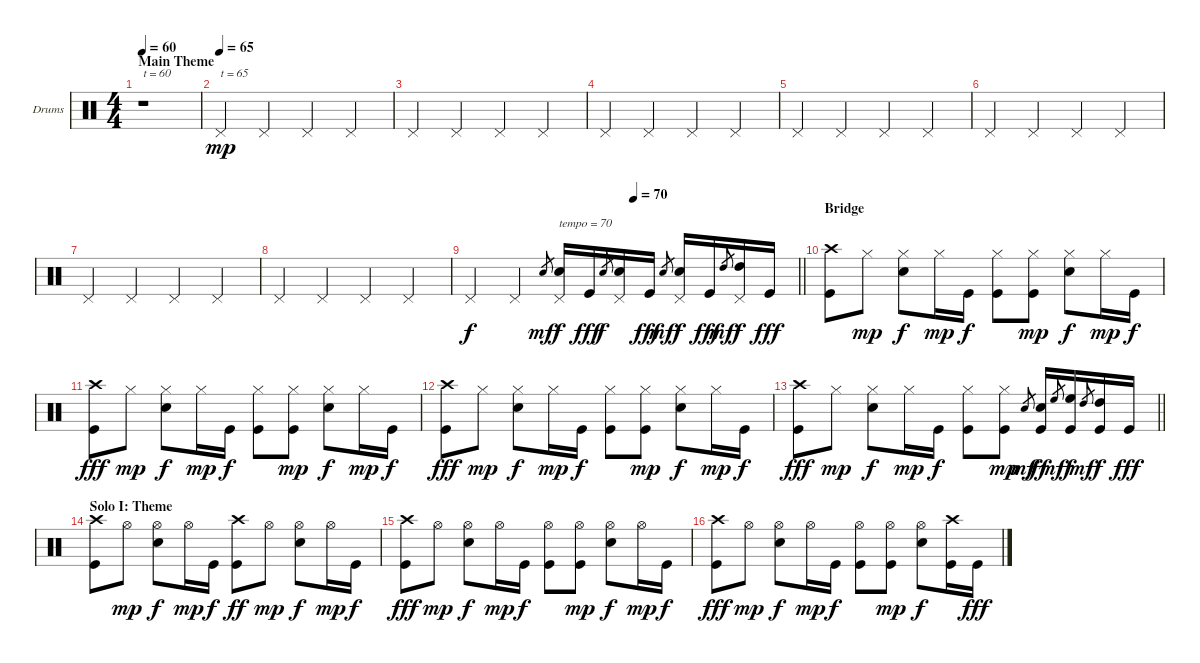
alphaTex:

\bracketExtendMode groupsimilarinstruments
\firstSystemTrackNameOrientation horizontal
\otherSystemsTrackNameOrientation horizontal
\track ("5" "Drums") {instrument percussion}
\staff {score}
\articulation defaults
\ts (4 4)
\beaming (8 2 2 2 2)
\section ("" "Main Theme")
\tempo 60
\clef neutral
\ks c
r.1{txt "t = 60" dy mp} |
\tempo (65)
"Pedal Hi-Hat (hit)".4{txt "t = 65"} "Pedal Hi-Hat (hit)".4 "Pedal Hi-Hat (hit)".4 "Pedal Hi-Hat (hit)".4 |
"Pedal Hi-Hat (hit)".4 "Pedal Hi-Hat (hit)".4 "Pedal Hi-Hat (hit)".4 "Pedal Hi-Hat (hit)".4 |
"Pedal Hi-Hat (hit)".4 "Pedal Hi-Hat (hit)".4 "Pedal Hi-Hat (hit)".4 "Pedal Hi-Hat (hit)".4 |
"Pedal Hi-Hat (hit)".4 "Pedal Hi-Hat (hit)".4 "Pedal Hi-Hat (hit)".4 "Pedal Hi-Hat (hit)".4 |
"Pedal Hi-Hat (hit)".4 "Pedal Hi-Hat (hit)".4 "Pedal Hi-Hat (hit)".4 "Pedal Hi-Hat (hit)".4 |
"Pedal Hi-Hat (hit)".4 "Pedal Hi-Hat (hit)".4 "Pedal Hi-Hat (hit)".4 "Pedal Hi-Hat (hit)".4 |
"Pedal Hi-Hat (hit)".4 "Pedal Hi-Hat (hit)".4 "Pedal Hi-Hat (hit)".4 "Pedal Hi-Hat (hit)".4 |
\tempo (70 0.5)
\barLineRight lightlight "Pedal Hi-Hat (hit)".4{dy f} "Pedal Hi-Hat (hit)".4 "Snare (hit) 2".8{gr dy mf}
("Pedal Hi-Hat (hit)" "Snare (hit) 2").16{txt "tempo = 70" dy f} "Kick (hit)".16{dy fff} "Snare (hit) 2".8{gr dy f} ("Pedal Hi-Hat (hit)" "Snare (hit) 2").16 "Kick (hit)".16{dy fff} "Snare (hit) 2".8{gr dy mf} ("Pedal Hi-Hat (hit)" "Snare (hit) 2").16{dy f} "Kick (hit)".16{dy fff} "High Tom (hit)".8{gr dy mf} ("Pedal Hi-Hat (hit)" "High Tom (hit)").16{dy f} "Kick (hit)".16{dy fff} |
\section ("" "Bridge")
("Crash high (hit)" "Kick (hit)").8 "Hi-Hat (closed)".8{dy mp} ("Hi-Hat (closed)" "Snare (hit) 2").8{dy f} "Hi-Hat (closed)".16{dy mp} "Kick (hit)".16{dy f} ("Hi-Hat (closed)" "Kick (hit)").8 ("Hi-Hat (closed)" "Kick (hit)").8{dy mp} ("Hi-Hat (closed)" "Snare (hit) 2").8{dy f} "Hi-Hat (closed)".16{dy mp} "Kick (hit)".16{dy f} |
("Crash high (hit)" "Kick (hit)").8{dy fff} "Hi-Hat (closed)".8{dy mp} ("Hi-Hat (closed)" "Snare (hit) 2").8{dy f} "Hi-Hat (closed)".16{dy mp} "Kick (hit)".16{dy f} ("Hi-Hat (closed)" "Kick (hit)").8 ("Hi-Hat (closed)" "Kick (hit)").8{dy mp} ("Hi-Hat (closed)" "Snare (hit) 2").8{dy f} "Hi-Hat (closed)".16{dy mp} "Kick (hit)".16{dy f} |
("Crash high (hit)" "Kick (hit)").8{dy fff} "Hi-Hat (closed)".8{dy mp} ("Hi-Hat (closed)" "Snare (hit) 2").8{dy f} "Hi-Hat (closed)".16{dy mp} "Kick (hit)".16{dy f} ("Hi-Hat (closed)" "Kick (hit)").8 ("Hi-Hat (closed)" "Kick (hit)").8{dy mp} ("Hi-Hat (closed)" "Snare (hit) 2").8{dy f} "Hi-Hat (closed)".16{dy mp} "Kick (hit)".16{dy f} |
\barLineRight lightlight
("Crash high (hit)" "Kick (hit)").8{dy fff} "Hi-Hat (closed)".8{dy mp} ("Hi-Hat (closed)" "Snare (hit) 2").8{dy f} "Hi-Hat (closed)".16{dy mp} "Kick (hit)".16{dy f} ("Hi-Hat (closed)" "Kick (hit)").8 ("Hi-Hat (closed)" "Kick (hit)").8{dy mp} "Snare (hit) 2".8{gr dy mf} ("Snare (hit) 2" "Kick (hit)").16{dy ff} "High Floor Tom (hit)".8{gr dy mf} ("High Floor Tom (hit)" "Kick (hit)").16{dy f} "High Tom (hit)".8{gr dy mf} ("High Tom (hit)" "Kick (hit)").16{dy f} "Kick (hit)".16{dy fff} |
\section ("" "Solo I: Theme")
("Crash high (hit)" "Kick (hit)").8 "Hi-Hat (open)".8{dy mp} ("Hi-Hat (open)" "Snare (hit) 2").8{dy f} "Hi-Hat (open)".16{dy mp} "Kick (hit)".16{dy f} ("Crash high (hit)" "Kick (hit)").8{dy ff} "Hi-Hat (open)".8{dy mp} ("Hi-Hat (open)" "Snare (hit) 2").8{dy f} "Hi-Hat (open)".16{dy mp} "Kick (hit)".16{dy f} |
("Crash high (hit)" "Kick (hit)").8{dy fff} "Hi-Hat (open)".8{dy mp} ("Hi-Hat (open)" "Snare (hit) 2").8{dy f} "Hi-Hat (open)".16{dy mp} "Kick (hit)".16{dy f} ("Hi-Hat (open)" "Kick (hit)").8 ("Hi-Hat (open)" "Kick (hit)").8{dy mp} ("Hi-Hat (open)" "Snare (hit) 2").8{dy f} "Hi-Hat (open)".16{dy mp} "Kick (hit)".16{dy f} |
("Crash high (hit)" "Kick (hit)").8{dy fff} "Hi-Hat (open)".8{dy mp} ("Hi-Hat (open)" "Snare (hit) 2").8{dy f} "Hi-Hat (open)".16{dy mp} "Kick (hit)".16{dy f} ("Hi-Hat (open)" "Kick (hit)").8 ("Hi-Hat (open)" "Kick (hit)").8{dy mp} ("Hi-Hat (open)" "Snare (hit) 2").8{dy f} ("Crash high (hit)" "Kick (hit)").16 "Kick (hit)".16{dy fff}
